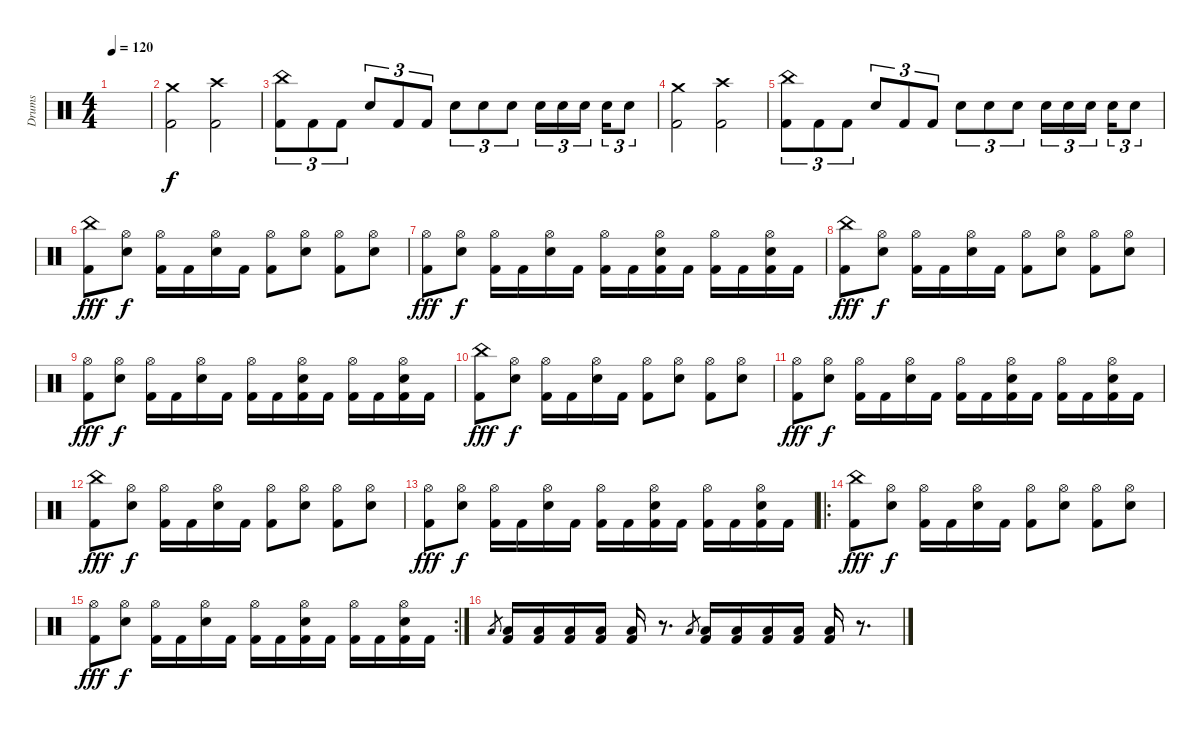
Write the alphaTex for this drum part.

\track ("Drums" "Drums") {instrument percussion}
\staff {score}
\articulation defaults
\ts (4 4)
\tempo 120
\clef neutral
\ks c
|
("Crash medium (hit)" "Kick (hit) 2").2{dy f} ("Crash high (hit)" "Kick (hit) 2").2 |
("China (hit)" "Kick (hit) 2").8{tu (3 2)} "Kick (hit) 2".8{tu (3 2)} "Kick (hit) 2".8{tu (3 2)} "Electric Snare (hit)".8{tu (3 2)} "Kick (hit) 2".8{tu (3 2)} "Kick (hit) 2".8{tu (3 2)} "Electric Snare (hit)".8{tu (3 2)} "Electric Snare (hit)".8{tu (3 2)} "Electric Snare (hit)".8{tu (3 2)} "Electric Snare (hit)".16{tu (3 2)} "Electric Snare (hit)".16{tu (3 2)} "Electric Snare (hit)".16{tu (3 2)} "Electric Snare (hit)".16{tu (3 2)} "Electric Snare (hit)".8{tu (3 2)} |
("Crash medium (hit)" "Kick (hit) 2").2 ("Crash high (hit)" "Kick (hit) 2").2 |
("China (hit)" "Kick (hit) 2").8{tu (3 2)} "Kick (hit) 2".8{tu (3 2)} "Kick (hit) 2".8{tu (3 2)} "Electric Snare (hit)".8{tu (3 2)} "Kick (hit) 2".8{tu (3 2)} "Kick (hit) 2".8{tu (3 2)} "Electric Snare (hit)".8{tu (3 2)} "Electric Snare (hit)".8{tu (3 2)} "Electric Snare (hit)".8{tu (3 2)} "Electric Snare (hit)".16{tu (3 2)} "Electric Snare (hit)".16{tu (3 2)} "Electric Snare (hit)".16{tu (3 2)} "Electric Snare (hit)".16{tu (3 2)} "Electric Snare (hit)".8{tu (3 2)} |
("China (hit)" "Kick (hit) 2").8{dy fff} ("Hi-Hat (open)" "Electric Snare (hit)").8{dy f} ("Hi-Hat (open)" "Kick (hit) 2").16 "Kick (hit) 2".16 ("Hi-Hat (open)" "Electric Snare (hit)").16 "Kick (hit) 2".16 ("Hi-Hat (open)" "Kick (hit) 2").8 ("Hi-Hat (open)" "Electric Snare (hit)").8 ("Hi-Hat (open)" "Kick (hit) 2").8 ("Hi-Hat (open)" "Electric Snare (hit)").8 |
("Hi-Hat (open)" "Kick (hit) 2").8{dy fff} ("Hi-Hat (open)" "Electric Snare (hit)").8{dy f} ("Hi-Hat (open)" "Kick (hit) 2").16 "Kick (hit) 2".16 ("Hi-Hat (open)" "Electric Snare (hit)").16 "Kick (hit) 2".16 ("Hi-Hat (open)" "Kick (hit) 2").16 "Kick (hit) 2".16 ("Hi-Hat (open)" "Electric Snare (hit)" "Kick (hit) 2").16 "Kick (hit) 2".16 ("Hi-Hat (open)" "Kick (hit) 2").16 "Kick (hit) 2".16 ("Hi-Hat (open)" "Electric Snare (hit)" "Kick (hit) 2").16 "Kick (hit) 2".16 |
("China (hit)" "Kick (hit) 2").8{dy fff} ("Hi-Hat (open)" "Electric Snare (hit)").8{dy f} ("Hi-Hat (open)" "Kick (hit) 2").16 "Kick (hit) 2".16 ("Hi-Hat (open)" "Electric Snare (hit)").16 "Kick (hit) 2".16 ("Hi-Hat (open)" "Kick (hit) 2").8 ("Hi-Hat (open)" "Electric Snare (hit)").8 ("Hi-Hat (open)" "Kick (hit) 2").8 ("Hi-Hat (open)" "Electric Snare (hit)").8 |
("Hi-Hat (open)" "Kick (hit) 2").8{dy fff} ("Hi-Hat (open)" "Electric Snare (hit)").8{dy f} ("Hi-Hat (open)" "Kick (hit) 2").16 "Kick (hit) 2".16 ("Hi-Hat (open)" "Electric Snare (hit)").16 "Kick (hit) 2".16 ("Hi-Hat (open)" "Kick (hit) 2").16 "Kick (hit) 2".16 ("Hi-Hat (open)" "Electric Snare (hit)" "Kick (hit) 2").16 "Kick (hit) 2".16 ("Hi-Hat (open)" "Kick (hit) 2").16 "Kick (hit) 2".16 ("Hi-Hat (open)" "Electric Snare (hit)" "Kick (hit) 2").16 "Kick (hit) 2".16 |
("China (hit)" "Kick (hit) 2").8{dy fff} ("Hi-Hat (open)" "Electric Snare (hit)").8{dy f} ("Hi-Hat (open)" "Kick (hit) 2").16 "Kick (hit) 2".16 ("Hi-Hat (open)" "Electric Snare (hit)").16 "Kick (hit) 2".16 ("Hi-Hat (open)" "Kick (hit) 2").8 ("Hi-Hat (open)" "Electric Snare (hit)").8 ("Hi-Hat (open)" "Kick (hit) 2").8 ("Hi-Hat (open)" "Electric Snare (hit)").8 |
("Hi-Hat (open)" "Kick (hit) 2").8{dy fff} ("Hi-Hat (open)" "Electric Snare (hit)").8{dy f} ("Hi-Hat (open)" "Kick (hit) 2").16 "Kick (hit) 2".16 ("Hi-Hat (open)" "Electric Snare (hit)").16 "Kick (hit) 2".16 ("Hi-Hat (open)" "Kick (hit) 2").16 "Kick (hit) 2".16 ("Hi-Hat (open)" "Electric Snare (hit)" "Kick (hit) 2").16 "Kick (hit) 2".16 ("Hi-Hat (open)" "Kick (hit) 2").16 "Kick (hit) 2".16 ("Hi-Hat (open)" "Electric Snare (hit)" "Kick (hit) 2").16 "Kick (hit) 2".16 |
("China (hit)" "Kick (hit) 2").8{dy fff} ("Hi-Hat (open)" "Electric Snare (hit)").8{dy f} ("Hi-Hat (open)" "Kick (hit) 2").16 "Kick (hit) 2".16 ("Hi-Hat (open)" "Electric Snare (hit)").16 "Kick (hit) 2".16 ("Hi-Hat (open)" "Kick (hit) 2").8 ("Hi-Hat (open)" "Electric Snare (hit)").8 ("Hi-Hat (open)" "Kick (hit) 2").8 ("Hi-Hat (open)" "Electric Snare (hit)").8 |
("Hi-Hat (open)" "Kick (hit) 2").8{dy fff} ("Hi-Hat (open)" "Electric Snare (hit)").8{dy f} ("Hi-Hat (open)" "Kick (hit) 2").16 "Kick (hit) 2".16 ("Hi-Hat (open)" "Electric Snare (hit)").16 "Kick (hit) 2".16 ("Hi-Hat (open)" "Kick (hit) 2").16 "Kick (hit) 2".16 ("Hi-Hat (open)" "Electric Snare (hit)" "Kick (hit) 2").16 "Kick (hit) 2".16 ("Hi-Hat (open)" "Kick (hit) 2").16 "Kick (hit) 2".16 ("Hi-Hat (open)" "Electric Snare (hit)" "Kick (hit) 2").16 "Kick (hit) 2".16 |
\ro
("China (hit)" "Kick (hit) 2").8{dy fff} ("Hi-Hat (open)" "Electric Snare (hit)").8{dy f} ("Hi-Hat (open)" "Kick (hit) 2").16 "Kick (hit) 2".16 ("Hi-Hat (open)" "Electric Snare (hit)").16 "Kick (hit) 2".16 ("Hi-Hat (open)" "Kick (hit) 2").8 ("Hi-Hat (open)" "Electric Snare (hit)").8 ("Hi-Hat (open)" "Kick (hit) 2").8 ("Hi-Hat (open)" "Electric Snare (hit)").8 |
\rc 2
("Hi-Hat (open)" "Kick (hit) 2").8{dy fff} ("Hi-Hat (open)" "Electric Snare (hit)").8{dy f} ("Hi-Hat (open)" "Kick (hit) 2").16 "Kick (hit) 2".16 ("Hi-Hat (open)" "Electric Snare (hit)").16 "Kick (hit) 2".16 ("Hi-Hat (open)" "Kick (hit) 2").16 "Kick (hit) 2".16 ("Hi-Hat (open)" "Electric Snare (hit)" "Kick (hit) 2").16 "Kick (hit) 2".16 ("Hi-Hat (open)" "Kick (hit) 2").16 "Kick (hit) 2".16 ("Hi-Hat (open)" "Electric Snare (hit)" "Kick (hit) 2").16 "Kick (hit) 2".16 |
"Low Tom (hit)".8{gr} ("Low Tom (hit)" "Kick (hit) 2").16 ("Low Tom (hit)" "Kick (hit) 2").16 ("Low Tom (hit)" "Kick (hit) 2").16 ("Low Tom (hit)" "Kick (hit) 2").16 ("Low Tom (hit)" "Kick (hit) 2").16 r.8{d} "Low Tom (hit)".8{gr} ("Low Tom (hit)" "Kick (hit) 2").16 ("Low Tom (hit)" "Kick (hit) 2").16 ("Low Tom (hit)" "Kick (hit) 2").16 ("Low Tom (hit)" "Kick (hit) 2").16 ("Low Tom (hit)" "Kick (hit) 2").16 r.8{d}
